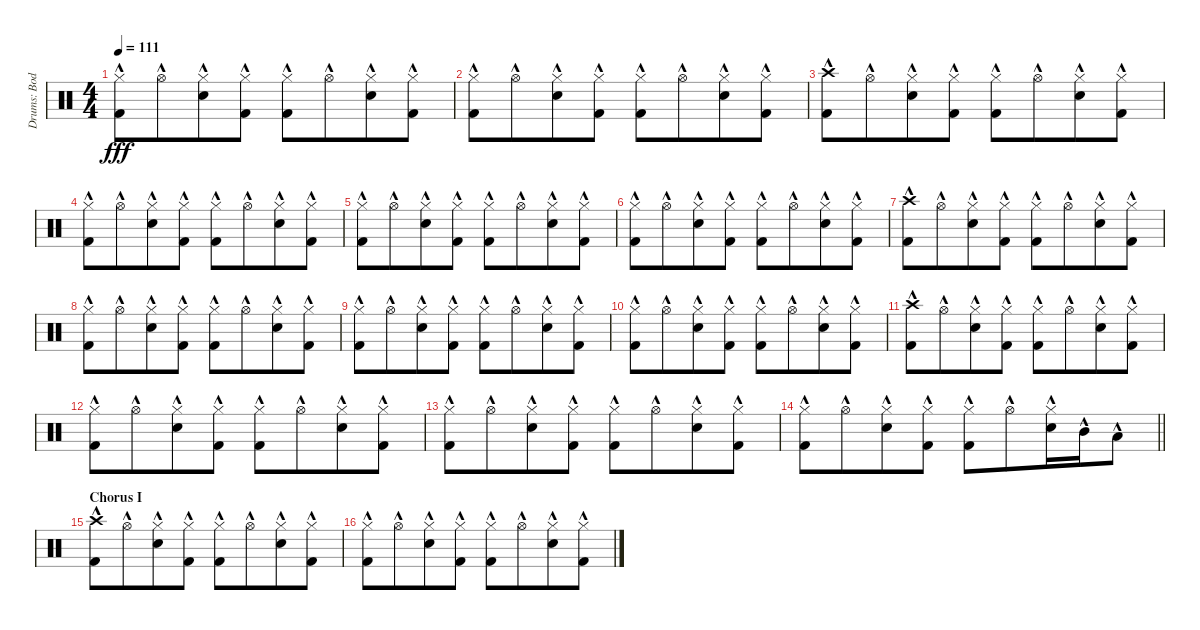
\track ("Drums: Bodo" "Drums: Bod") {instrument percussion}
\staff {score}
\articulation defaults
\ts (4 4)
\tempo 111
\clef neutral
\ks c
("Hi-Hat (closed)"{hac} "Kick (hit) 2"{hac}).8{dy fff} "Hi-Hat (open)"{hac}.8{beam merge} ("Hi-Hat (closed)"{hac} "Electric Snare (hit)"{hac}).8 ("Hi-Hat (closed)"{hac} "Kick (hit) 2"{hac}).8 ("Hi-Hat (closed)"{hac} "Kick (hit) 2"{hac}).8 "Hi-Hat (open)"{hac}.8{beam merge} ("Hi-Hat (closed)"{hac} "Electric Snare (hit)"{hac}).8 ("Hi-Hat (closed)"{hac} "Kick (hit) 2"{hac}).8 |
("Hi-Hat (closed)"{hac} "Kick (hit) 2"{hac}).8 "Hi-Hat (open)"{hac}.8{beam merge} ("Hi-Hat (closed)"{hac} "Electric Snare (hit)"{hac}).8 ("Hi-Hat (closed)"{hac} "Kick (hit) 2"{hac}).8 ("Hi-Hat (closed)"{hac} "Kick (hit) 2"{hac}).8 "Hi-Hat (open)"{hac}.8{beam merge} ("Hi-Hat (closed)"{hac} "Electric Snare (hit)"{hac}).8 ("Hi-Hat (closed)"{hac} "Kick (hit) 2"{hac}).8 |
("Crash high (hit)"{hac} "Kick (hit) 2"{hac}).8 "Hi-Hat (open)"{hac}.8{beam merge} ("Hi-Hat (closed)"{hac} "Electric Snare (hit)"{hac}).8 ("Hi-Hat (closed)"{hac} "Kick (hit) 2"{hac}).8 ("Hi-Hat (closed)"{hac} "Kick (hit) 2"{hac}).8 "Hi-Hat (open)"{hac}.8{beam merge} ("Hi-Hat (closed)"{hac} "Electric Snare (hit)"{hac}).8 ("Hi-Hat (closed)"{hac} "Kick (hit) 2"{hac}).8 |
("Hi-Hat (closed)"{hac} "Kick (hit) 2"{hac}).8 "Hi-Hat (open)"{hac}.8{beam merge} ("Hi-Hat (closed)"{hac} "Electric Snare (hit)"{hac}).8 ("Hi-Hat (closed)"{hac} "Kick (hit) 2"{hac}).8 ("Hi-Hat (closed)"{hac} "Kick (hit) 2"{hac}).8 "Hi-Hat (open)"{hac}.8{beam merge} ("Hi-Hat (closed)"{hac} "Electric Snare (hit)"{hac}).8 ("Hi-Hat (closed)"{hac} "Kick (hit) 2"{hac}).8 |
("Hi-Hat (closed)"{hac} "Kick (hit) 2"{hac}).8 "Hi-Hat (open)"{hac}.8{beam merge} ("Hi-Hat (closed)"{hac} "Electric Snare (hit)"{hac}).8 ("Hi-Hat (closed)"{hac} "Kick (hit) 2"{hac}).8 ("Hi-Hat (closed)"{hac} "Kick (hit) 2"{hac}).8 "Hi-Hat (open)"{hac}.8{beam merge} ("Hi-Hat (closed)"{hac} "Electric Snare (hit)"{hac}).8 ("Hi-Hat (closed)"{hac} "Kick (hit) 2"{hac}).8 |
("Hi-Hat (closed)"{hac} "Kick (hit) 2"{hac}).8 "Hi-Hat (open)"{hac}.8{beam merge} ("Hi-Hat (closed)"{hac} "Electric Snare (hit)"{hac}).8 ("Hi-Hat (closed)"{hac} "Kick (hit) 2"{hac}).8 ("Hi-Hat (closed)"{hac} "Kick (hit) 2"{hac}).8 "Hi-Hat (open)"{hac}.8{beam merge} ("Hi-Hat (closed)"{hac} "Electric Snare (hit)"{hac}).8 ("Hi-Hat (closed)"{hac} "Kick (hit) 2"{hac}).8 |
("Crash high (hit)"{hac} "Kick (hit) 2"{hac}).8 "Hi-Hat (open)"{hac}.8{beam merge} ("Hi-Hat (closed)"{hac} "Electric Snare (hit)"{hac}).8 ("Hi-Hat (closed)"{hac} "Kick (hit) 2"{hac}).8 ("Hi-Hat (closed)"{hac} "Kick (hit) 2"{hac}).8 "Hi-Hat (open)"{hac}.8{beam merge} ("Hi-Hat (closed)"{hac} "Electric Snare (hit)"{hac}).8 ("Hi-Hat (closed)"{hac} "Kick (hit) 2"{hac}).8 |
("Hi-Hat (closed)"{hac} "Kick (hit) 2"{hac}).8 "Hi-Hat (open)"{hac}.8{beam merge} ("Hi-Hat (closed)"{hac} "Electric Snare (hit)"{hac}).8 ("Hi-Hat (closed)"{hac} "Kick (hit) 2"{hac}).8 ("Hi-Hat (closed)"{hac} "Kick (hit) 2"{hac}).8 "Hi-Hat (open)"{hac}.8{beam merge} ("Hi-Hat (closed)"{hac} "Electric Snare (hit)"{hac}).8 ("Hi-Hat (closed)"{hac} "Kick (hit) 2"{hac}).8 |
("Hi-Hat (closed)"{hac} "Kick (hit) 2"{hac}).8 "Hi-Hat (open)"{hac}.8{beam merge} ("Hi-Hat (closed)"{hac} "Electric Snare (hit)"{hac}).8 ("Hi-Hat (closed)"{hac} "Kick (hit) 2"{hac}).8 ("Hi-Hat (closed)"{hac} "Kick (hit) 2"{hac}).8 "Hi-Hat (open)"{hac}.8{beam merge} ("Hi-Hat (closed)"{hac} "Electric Snare (hit)"{hac}).8 ("Hi-Hat (closed)"{hac} "Kick (hit) 2"{hac}).8 |
("Hi-Hat (closed)"{hac} "Kick (hit) 2"{hac}).8 "Hi-Hat (open)"{hac}.8{beam merge} ("Hi-Hat (closed)"{hac} "Electric Snare (hit)"{hac}).8 ("Hi-Hat (closed)"{hac} "Kick (hit) 2"{hac}).8 ("Hi-Hat (closed)"{hac} "Kick (hit) 2"{hac}).8 "Hi-Hat (open)"{hac}.8{beam merge} ("Hi-Hat (closed)"{hac} "Electric Snare (hit)"{hac}).8 ("Hi-Hat (closed)"{hac} "Kick (hit) 2"{hac}).8 |
("Crash high (hit)"{hac} "Kick (hit) 2"{hac}).8 "Hi-Hat (open)"{hac}.8{beam merge} ("Hi-Hat (closed)"{hac} "Electric Snare (hit)"{hac}).8 ("Hi-Hat (closed)"{hac} "Kick (hit) 2"{hac}).8 ("Hi-Hat (closed)"{hac} "Kick (hit) 2"{hac}).8 "Hi-Hat (open)"{hac}.8{beam merge} ("Hi-Hat (closed)"{hac} "Electric Snare (hit)"{hac}).8 ("Hi-Hat (closed)"{hac} "Kick (hit) 2"{hac}).8 |
("Hi-Hat (closed)"{hac} "Kick (hit) 2"{hac}).8 "Hi-Hat (open)"{hac}.8{beam merge} ("Hi-Hat (closed)"{hac} "Electric Snare (hit)"{hac}).8 ("Hi-Hat (closed)"{hac} "Kick (hit) 2"{hac}).8 ("Hi-Hat (closed)"{hac} "Kick (hit) 2"{hac}).8 "Hi-Hat (open)"{hac}.8{beam merge} ("Hi-Hat (closed)"{hac} "Electric Snare (hit)"{hac}).8 ("Hi-Hat (closed)"{hac} "Kick (hit) 2"{hac}).8 |
("Hi-Hat (closed)"{hac} "Kick (hit) 2"{hac}).8 "Hi-Hat (open)"{hac}.8{beam merge} ("Hi-Hat (closed)"{hac} "Electric Snare (hit)"{hac}).8 ("Hi-Hat (closed)"{hac} "Kick (hit) 2"{hac}).8 ("Hi-Hat (closed)"{hac} "Kick (hit) 2"{hac}).8 "Hi-Hat (open)"{hac}.8{beam merge} ("Hi-Hat (closed)"{hac} "Electric Snare (hit)"{hac}).8 ("Hi-Hat (closed)"{hac} "Kick (hit) 2"{hac}).8 |
\barLineRight lightlight
("Hi-Hat (closed)"{hac} "Kick (hit) 2"{hac}).8 "Hi-Hat (open)"{hac}.8{beam merge} ("Hi-Hat (closed)"{hac} "Electric Snare (hit)"{hac}).8 ("Hi-Hat (closed)"{hac} "Kick (hit) 2"{hac}).8 ("Hi-Hat (closed)"{hac} "Kick (hit) 2"{hac}).8 "Hi-Hat (open)"{hac}.8{beam merge} ("Hi-Hat (closed)"{hac} "Electric Snare (hit)"{hac}).16 "Mid Tom (hit)"{hac}.16 "Low Tom (hit)"{hac}.8 |
\section ("" "Chorus I")
("Crash high (hit)"{hac} "Kick (hit) 2"{hac}).8 "Hi-Hat (open)"{hac}.8{beam merge} ("Hi-Hat (closed)"{hac} "Electric Snare (hit)"{hac}).8 ("Hi-Hat (closed)"{hac} "Kick (hit) 2"{hac}).8 ("Hi-Hat (closed)"{hac} "Kick (hit) 2"{hac}).8 "Hi-Hat (open)"{hac}.8{beam merge} ("Hi-Hat (closed)"{hac} "Electric Snare (hit)"{hac}).8 ("Hi-Hat (closed)"{hac} "Kick (hit) 2"{hac}).8 |
("Hi-Hat (closed)"{hac} "Kick (hit) 2"{hac}).8 "Hi-Hat (open)"{hac}.8{beam merge} ("Hi-Hat (closed)"{hac} "Electric Snare (hit)"{hac}).8 ("Hi-Hat (closed)"{hac} "Kick (hit) 2"{hac}).8 ("Hi-Hat (closed)"{hac} "Kick (hit) 2"{hac}).8 "Hi-Hat (open)"{hac}.8{beam merge} ("Hi-Hat (closed)"{hac} "Electric Snare (hit)"{hac}).8 ("Hi-Hat (closed)"{hac} "Kick (hit) 2"{hac}).8
